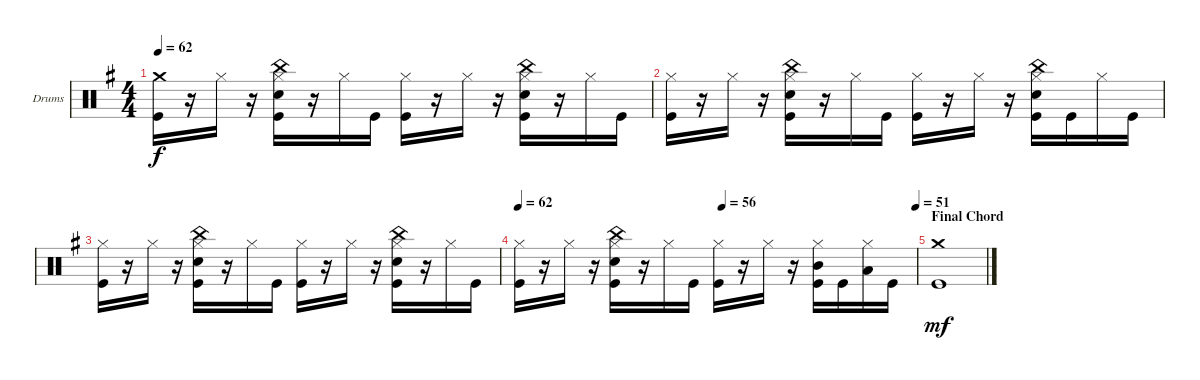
\defaultSystemsLayout 4
\bracketExtendMode groupsimilarinstruments
\firstSystemTrackNameOrientation horizontal
\otherSystemsTrackNameOrientation horizontal
\track ("Drumkit" "Drums") {instrument percussion}
\staff {score}
\articulation defaults
\ts (4 4)
\tempo 62
\clef neutral
\ks g
("Kick (hit)" "Crash medium (hit)").16{dy f} r.16 "Hi-Hat (closed)".16 r.16 ("Hi-Hat (closed)" "Kick (hit)" "Snare (hit) 2" "China (hit)").16 r.16 "Hi-Hat (closed)".16 "Kick (hit)".16 ("Kick (hit)" "Hi-Hat (closed)").16 r.16 "Hi-Hat (closed)".16 r.16 ("Hi-Hat (closed)" "Kick (hit)" "Snare (hit) 2" "China (hit)").16 r.16 "Hi-Hat (closed)".16 "Kick (hit)".16 |
("Hi-Hat (closed)" "Kick (hit)").16 r.16 "Hi-Hat (closed)".16 r.16 ("Hi-Hat (closed)" "Kick (hit)" "Snare (hit) 2" "China (hit)").16 r.16 "Hi-Hat (closed)".16 "Kick (hit)".16 ("Kick (hit)" "Hi-Hat (closed)").16 r.16 "Hi-Hat (closed)".16 r.16 ("Hi-Hat (closed)" "Kick (hit)" "Snare (hit) 2" "China (hit)").16 "Kick (hit)".16 "Hi-Hat (closed)".16 "Kick (hit)".16 |
("Hi-Hat (closed)" "Kick (hit)").16 r.16 "Hi-Hat (closed)".16 r.16 ("Hi-Hat (closed)" "Kick (hit)" "Snare (hit) 2" "China (hit)").16 r.16 "Hi-Hat (closed)".16 "Kick (hit)".16 ("Kick (hit)" "Hi-Hat (closed)").16 r.16 "Hi-Hat (closed)".16 r.16 ("Hi-Hat (closed)" "Kick (hit)" "Snare (hit) 2" "China (hit)").16 r.16 "Hi-Hat (closed)".16 "Kick (hit)".16 |
\tempo 62
\tempo (56 0.5125)
\tempo (51 1)
("Hi-Hat (closed)" "Kick (hit)").16 r.16 "Hi-Hat (closed)".16 r.16 ("Hi-Hat (closed)" "Kick (hit)" "Snare (hit) 2" "China (hit)").16 r.16 "Hi-Hat (closed)".16 "Kick (hit)".16 ("Kick (hit)" "Hi-Hat (closed)").16 r.16 "Hi-Hat (closed)".16 r.16 ("Hi-Hat (closed)" "Kick (hit)" "Mid Tom (hit)").16 "Kick (hit)".16 ("Hi-Hat (closed)" "Low Tom (hit)").16 "Kick (hit)".16 |
\section ("" "Final Chord")
("Crash medium (hit)" "Kick (hit)").1{dy mf}
